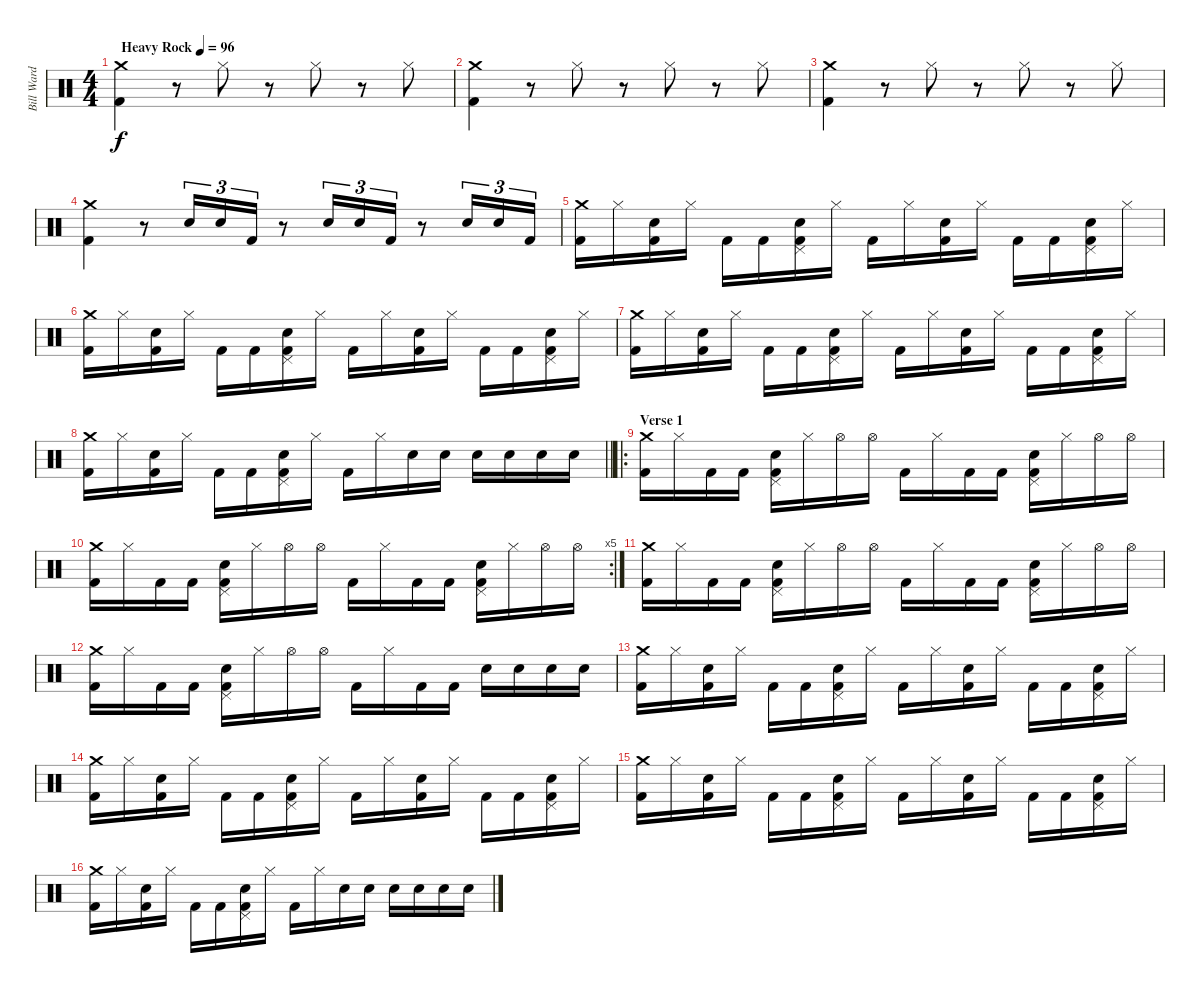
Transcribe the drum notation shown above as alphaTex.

\track ("Bill Ward" "Bill Ward") {instrument percussion}
\staff {score}
\articulation defaults
\ts (4 4)
\tempo (96 "Heavy Rock")
\clef neutral
\ks c
("Crash medium (hit)" "Kick (hit) 2").4{dy f} r.8 "Hi-Hat (closed)".8 r.8 "Hi-Hat (closed)".8 r.8 "Hi-Hat (closed)".8 |
("Crash medium (hit)" "Kick (hit) 2").4 r.8 "Hi-Hat (closed)".8 r.8 "Hi-Hat (closed)".8 r.8 "Hi-Hat (closed)".8 |
("Crash medium (hit)" "Kick (hit) 2").4 r.8 "Hi-Hat (closed)".8 r.8 "Hi-Hat (closed)".8 r.8 "Hi-Hat (closed)".8 |
("Crash medium (hit)" "Kick (hit) 2").4 r.8 "Electric Snare (hit)".16{tu (3 2)} "Electric Snare (hit)".16{tu (3 2)} "Kick (hit) 2".16{tu (3 2)} r.8 "Electric Snare (hit)".16{tu (3 2)} "Electric Snare (hit)".16{tu (3 2)} "Kick (hit) 2".16{tu (3 2)} r.8 "Electric Snare (hit)".16{tu (3 2)} "Electric Snare (hit)".16{tu (3 2)} "Kick (hit) 2".16{tu (3 2)} |
("Crash medium (hit)" "Kick (hit) 2").16 "Hi-Hat (closed)".16 ("Snare (hit) 2" "Kick (hit) 2").16 "Hi-Hat (closed)".16 "Kick (hit) 2".16 "Kick (hit) 2".16 ("Pedal Hi-Hat (hit)" "Snare (hit) 2" "Kick (hit) 2").16 "Hi-Hat (closed)".16 "Kick (hit) 2".16 "Hi-Hat (closed)".16 ("Snare (hit) 2" "Kick (hit) 2").16 "Hi-Hat (closed)".16 "Kick (hit) 2".16 "Kick (hit) 2".16 ("Pedal Hi-Hat (hit)" "Snare (hit) 2" "Kick (hit) 2").16 "Hi-Hat (closed)".16 |
("Crash medium (hit)" "Kick (hit) 2").16 "Hi-Hat (closed)".16 ("Snare (hit) 2" "Kick (hit) 2").16 "Hi-Hat (closed)".16 "Kick (hit) 2".16 "Kick (hit) 2".16 ("Pedal Hi-Hat (hit)" "Snare (hit) 2" "Kick (hit) 2").16 "Hi-Hat (closed)".16 "Kick (hit) 2".16 "Hi-Hat (closed)".16 ("Snare (hit) 2" "Kick (hit) 2").16 "Hi-Hat (closed)".16 "Kick (hit) 2".16 "Kick (hit) 2".16 ("Pedal Hi-Hat (hit)" "Snare (hit) 2" "Kick (hit) 2").16 "Hi-Hat (closed)".16 |
("Crash medium (hit)" "Kick (hit) 2").16 "Hi-Hat (closed)".16 ("Snare (hit) 2" "Kick (hit) 2").16 "Hi-Hat (closed)".16 "Kick (hit) 2".16 "Kick (hit) 2".16 ("Pedal Hi-Hat (hit)" "Snare (hit) 2" "Kick (hit) 2").16 "Hi-Hat (closed)".16 "Kick (hit) 2".16 "Hi-Hat (closed)".16 ("Snare (hit) 2" "Kick (hit) 2").16 "Hi-Hat (closed)".16 "Kick (hit) 2".16 "Kick (hit) 2".16 ("Pedal Hi-Hat (hit)" "Snare (hit) 2" "Kick (hit) 2").16 "Hi-Hat (closed)".16 |
\barLineRight lightlight
("Crash medium (hit)" "Kick (hit) 2").16 "Hi-Hat (closed)".16 ("Snare (hit) 2" "Kick (hit) 2").16 "Hi-Hat (closed)".16 "Kick (hit) 2".16 "Kick (hit) 2".16 ("Pedal Hi-Hat (hit)" "Snare (hit) 2" "Kick (hit) 2").16 "Hi-Hat (closed)".16 "Kick (hit) 2".16 "Hi-Hat (closed)".16 "Snare (hit) 2".16 "Snare (hit) 2".16 "Snare (hit) 2".16 "Snare (hit) 2".16 "Snare (hit) 2".16 "Snare (hit) 2".16 |
\ro
\section ("" "Verse 1")
("Crash medium (hit)" "Kick (hit) 2").16 "Hi-Hat (closed)".16 "Kick (hit) 2".16 "Kick (hit) 2".16 ("Pedal Hi-Hat (hit)" "Snare (hit) 2" "Kick (hit) 2").16 "Hi-Hat (closed)".16 "Hi-Hat (open)".16 "Hi-Hat (open)".16 "Kick (hit) 2".16 "Hi-Hat (closed)".16 "Kick (hit) 2".16 "Kick (hit) 2".16 ("Pedal Hi-Hat (hit)" "Snare (hit) 2" "Kick (hit) 2").16 "Hi-Hat (closed)".16 "Hi-Hat (open)".16 "Hi-Hat (open)".16 |
\rc 5
("Crash medium (hit)" "Kick (hit) 2").16 "Hi-Hat (closed)".16 "Kick (hit) 2".16 "Kick (hit) 2".16 ("Pedal Hi-Hat (hit)" "Snare (hit) 2" "Kick (hit) 2").16 "Hi-Hat (closed)".16 "Hi-Hat (open)".16 "Hi-Hat (open)".16 "Kick (hit) 2".16 "Hi-Hat (closed)".16 "Kick (hit) 2".16 "Kick (hit) 2".16 ("Pedal Hi-Hat (hit)" "Snare (hit) 2" "Kick (hit) 2").16 "Hi-Hat (closed)".16 "Hi-Hat (open)".16 "Hi-Hat (open)".16 |
("Crash medium (hit)" "Kick (hit) 2").16 "Hi-Hat (closed)".16 "Kick (hit) 2".16 "Kick (hit) 2".16 ("Pedal Hi-Hat (hit)" "Snare (hit) 2" "Kick (hit) 2").16 "Hi-Hat (closed)".16 "Hi-Hat (open)".16 "Hi-Hat (open)".16 "Kick (hit) 2".16 "Hi-Hat (closed)".16 "Kick (hit) 2".16 "Kick (hit) 2".16 ("Pedal Hi-Hat (hit)" "Snare (hit) 2" "Kick (hit) 2").16 "Hi-Hat (closed)".16 "Hi-Hat (open)".16 "Hi-Hat (open)".16 |
("Crash medium (hit)" "Kick (hit) 2").16 "Hi-Hat (closed)".16 "Kick (hit) 2".16 "Kick (hit) 2".16 ("Pedal Hi-Hat (hit)" "Snare (hit) 2" "Kick (hit) 2").16 "Hi-Hat (closed)".16 "Hi-Hat (open)".16 "Hi-Hat (open)".16 "Kick (hit) 2".16 "Hi-Hat (closed)".16 "Kick (hit) 2".16 "Kick (hit) 2".16 "Snare (hit) 2".16 "Snare (hit) 2".16 "Snare (hit) 2".16 "Snare (hit) 2".16 |
("Crash medium (hit)" "Kick (hit) 2").16 "Hi-Hat (closed)".16 ("Snare (hit) 2" "Kick (hit) 2").16 "Hi-Hat (closed)".16 "Kick (hit) 2".16 "Kick (hit) 2".16 ("Pedal Hi-Hat (hit)" "Snare (hit) 2" "Kick (hit) 2").16 "Hi-Hat (closed)".16 "Kick (hit) 2".16 "Hi-Hat (closed)".16 ("Snare (hit) 2" "Kick (hit) 2").16 "Hi-Hat (closed)".16 "Kick (hit) 2".16 "Kick (hit) 2".16 ("Pedal Hi-Hat (hit)" "Snare (hit) 2" "Kick (hit) 2").16 "Hi-Hat (closed)".16 |
("Crash medium (hit)" "Kick (hit) 2").16 "Hi-Hat (closed)".16 ("Snare (hit) 2" "Kick (hit) 2").16 "Hi-Hat (closed)".16 "Kick (hit) 2".16 "Kick (hit) 2".16 ("Pedal Hi-Hat (hit)" "Snare (hit) 2" "Kick (hit) 2").16 "Hi-Hat (closed)".16 "Kick (hit) 2".16 "Hi-Hat (closed)".16 ("Snare (hit) 2" "Kick (hit) 2").16 "Hi-Hat (closed)".16 "Kick (hit) 2".16 "Kick (hit) 2".16 ("Pedal Hi-Hat (hit)" "Snare (hit) 2" "Kick (hit) 2").16 "Hi-Hat (closed)".16 |
("Crash medium (hit)" "Kick (hit) 2").16 "Hi-Hat (closed)".16 ("Snare (hit) 2" "Kick (hit) 2").16 "Hi-Hat (closed)".16 "Kick (hit) 2".16 "Kick (hit) 2".16 ("Pedal Hi-Hat (hit)" "Snare (hit) 2" "Kick (hit) 2").16 "Hi-Hat (closed)".16 "Kick (hit) 2".16 "Hi-Hat (closed)".16 ("Snare (hit) 2" "Kick (hit) 2").16 "Hi-Hat (closed)".16 "Kick (hit) 2".16 "Kick (hit) 2".16 ("Pedal Hi-Hat (hit)" "Snare (hit) 2" "Kick (hit) 2").16 "Hi-Hat (closed)".16 |
("Crash medium (hit)" "Kick (hit) 2").16 "Hi-Hat (closed)".16 ("Snare (hit) 2" "Kick (hit) 2").16 "Hi-Hat (closed)".16 "Kick (hit) 2".16 "Kick (hit) 2".16 ("Pedal Hi-Hat (hit)" "Snare (hit) 2" "Kick (hit) 2").16 "Hi-Hat (closed)".16 "Kick (hit) 2".16 "Hi-Hat (closed)".16 "Snare (hit) 2".16 "Snare (hit) 2".16 "Snare (hit) 2".16 "Snare (hit) 2".16 "Snare (hit) 2".16 "Snare (hit) 2".16
